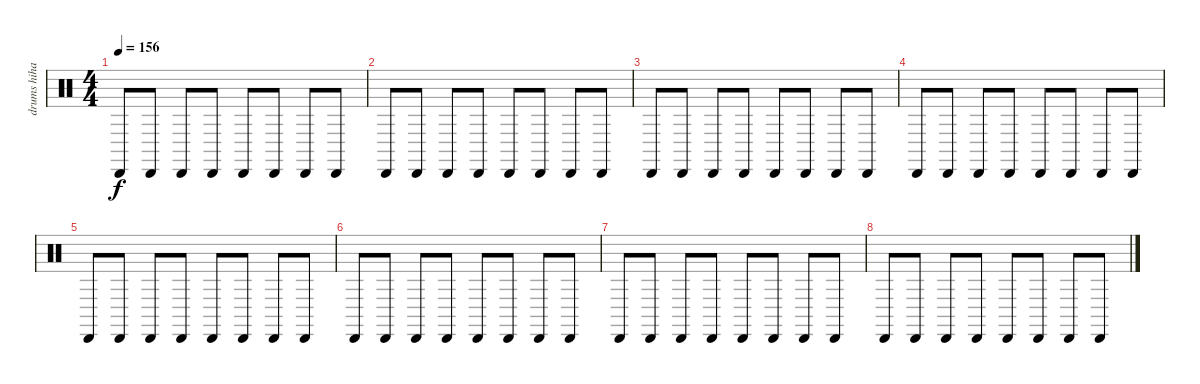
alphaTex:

\track ("drums hihats" "drums hiha") {instrument percussion}
\staff {score}
\articulation defaults
\ts (4 4)
\tempo 156
\clef neutral
\ks c "Cabasa (hit)".8{dy f} "Cabasa (hit)".8 "Cabasa (hit)".8 "Cabasa (hit)".8 "Cabasa (hit)".8 "Cabasa (hit)".8 "Cabasa (hit)".8 "Cabasa (hit)".8
|
"Cabasa (hit)".8 "Cabasa (hit)".8 "Cabasa (hit)".8 "Cabasa (hit)".8 "Cabasa (hit)".8 "Cabasa (hit)".8 "Cabasa (hit)".8 "Cabasa (hit)".8 |
"Cabasa (hit)".8 "Cabasa (hit)".8 "Cabasa (hit)".8 "Cabasa (hit)".8 "Cabasa (hit)".8 "Cabasa (hit)".8 "Cabasa (hit)".8 "Cabasa (hit)".8 |
"Cabasa (hit)".8 "Cabasa (hit)".8 "Cabasa (hit)".8 "Cabasa (hit)".8 "Cabasa (hit)".8 "Cabasa (hit)".8 "Cabasa (hit)".8 "Cabasa (hit)".8 |
"Cabasa (hit)".8 "Cabasa (hit)".8 "Cabasa (hit)".8 "Cabasa (hit)".8 "Cabasa (hit)".8 "Cabasa (hit)".8 "Cabasa (hit)".8 "Cabasa (hit)".8 |
"Cabasa (hit)".8 "Cabasa (hit)".8 "Cabasa (hit)".8 "Cabasa (hit)".8 "Cabasa (hit)".8 "Cabasa (hit)".8 "Cabasa (hit)".8 "Cabasa (hit)".8 |
"Cabasa (hit)".8 "Cabasa (hit)".8 "Cabasa (hit)".8 "Cabasa (hit)".8 "Cabasa (hit)".8 "Cabasa (hit)".8 "Cabasa (hit)".8 "Cabasa (hit)".8 |
"Cabasa (hit)".8 "Cabasa (hit)".8 "Cabasa (hit)".8 "Cabasa (hit)".8 "Cabasa (hit)".8 "Cabasa (hit)".8 "Cabasa (hit)".8 "Cabasa (hit)".8
